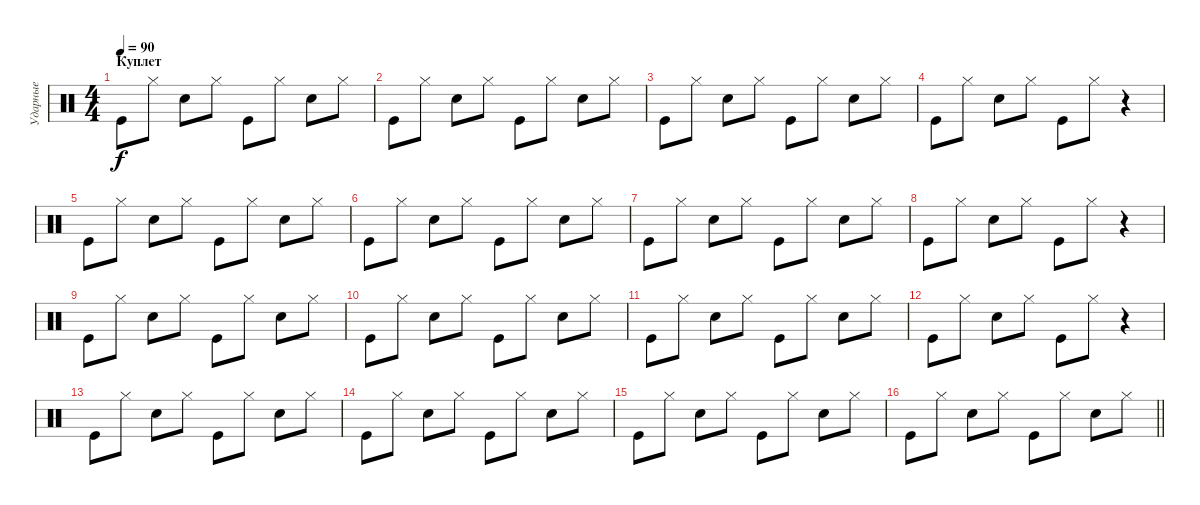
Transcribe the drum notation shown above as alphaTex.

\track ("Ударные" "Ударные") {instrument percussion}
\staff {score}
\articulation defaults
\ts (4 4)
\section ("" "Куплет")
\tempo 90
\clef neutral
\ks c "Kick (hit)".8{dy f} "Hi-Hat (closed)".8 "Electric Snare (hit)".8 "Hi-Hat (closed)".8 "Kick (hit)".8 "Hi-Hat (closed)".8 "Electric Snare (hit)".8 "Hi-Hat (closed)".8
|
"Kick (hit)".8 "Hi-Hat (closed)".8 "Electric Snare (hit)".8 "Hi-Hat (closed)".8 "Kick (hit)".8 "Hi-Hat (closed)".8 "Electric Snare (hit)".8 "Hi-Hat (closed)".8 |
"Kick (hit)".8 "Hi-Hat (closed)".8 "Electric Snare (hit)".8 "Hi-Hat (closed)".8 "Kick (hit)".8 "Hi-Hat (closed)".8 "Electric Snare (hit)".8 "Hi-Hat (closed)".8 |
"Kick (hit)".8 "Hi-Hat (closed)".8 "Electric Snare (hit)".8 "Hi-Hat (closed)".8 "Kick (hit)".8 "Hi-Hat (closed)".8 r.4 |
"Kick (hit)".8 "Hi-Hat (closed)".8 "Electric Snare (hit)".8 "Hi-Hat (closed)".8 "Kick (hit)".8 "Hi-Hat (closed)".8 "Electric Snare (hit)".8 "Hi-Hat (closed)".8 |
"Kick (hit)".8 "Hi-Hat (closed)".8 "Electric Snare (hit)".8 "Hi-Hat (closed)".8 "Kick (hit)".8 "Hi-Hat (closed)".8 "Electric Snare (hit)".8 "Hi-Hat (closed)".8 |
"Kick (hit)".8 "Hi-Hat (closed)".8 "Electric Snare (hit)".8 "Hi-Hat (closed)".8 "Kick (hit)".8 "Hi-Hat (closed)".8 "Electric Snare (hit)".8 "Hi-Hat (closed)".8 |
"Kick (hit)".8 "Hi-Hat (closed)".8 "Electric Snare (hit)".8 "Hi-Hat (closed)".8 "Kick (hit)".8 "Hi-Hat (closed)".8 r.4 |
"Kick (hit)".8 "Hi-Hat (closed)".8 "Electric Snare (hit)".8 "Hi-Hat (closed)".8 "Kick (hit)".8 "Hi-Hat (closed)".8 "Electric Snare (hit)".8 "Hi-Hat (closed)".8 |
"Kick (hit)".8 "Hi-Hat (closed)".8 "Electric Snare (hit)".8 "Hi-Hat (closed)".8 "Kick (hit)".8 "Hi-Hat (closed)".8 "Electric Snare (hit)".8 "Hi-Hat (closed)".8 |
"Kick (hit)".8 "Hi-Hat (closed)".8 "Electric Snare (hit)".8 "Hi-Hat (closed)".8 "Kick (hit)".8 "Hi-Hat (closed)".8 "Electric Snare (hit)".8 "Hi-Hat (closed)".8 |
"Kick (hit)".8 "Hi-Hat (closed)".8 "Electric Snare (hit)".8 "Hi-Hat (closed)".8 "Kick (hit)".8 "Hi-Hat (closed)".8 r.4 |
"Kick (hit)".8 "Hi-Hat (closed)".8 "Electric Snare (hit)".8 "Hi-Hat (closed)".8 "Kick (hit)".8 "Hi-Hat (closed)".8 "Electric Snare (hit)".8 "Hi-Hat (closed)".8 |
"Kick (hit)".8 "Hi-Hat (closed)".8 "Electric Snare (hit)".8 "Hi-Hat (closed)".8 "Kick (hit)".8 "Hi-Hat (closed)".8 "Electric Snare (hit)".8 "Hi-Hat (closed)".8 |
"Kick (hit)".8 "Hi-Hat (closed)".8 "Electric Snare (hit)".8 "Hi-Hat (closed)".8 "Kick (hit)".8 "Hi-Hat (closed)".8 "Electric Snare (hit)".8 "Hi-Hat (closed)".8 |
\barLineRight lightlight "Kick (hit)".8 "Hi-Hat (closed)".8 "Electric Snare (hit)".8 "Hi-Hat (closed)".8 "Kick (hit)".8 "Hi-Hat (closed)".8 "Electric Snare (hit)".8 "Hi-Hat (closed)".8
